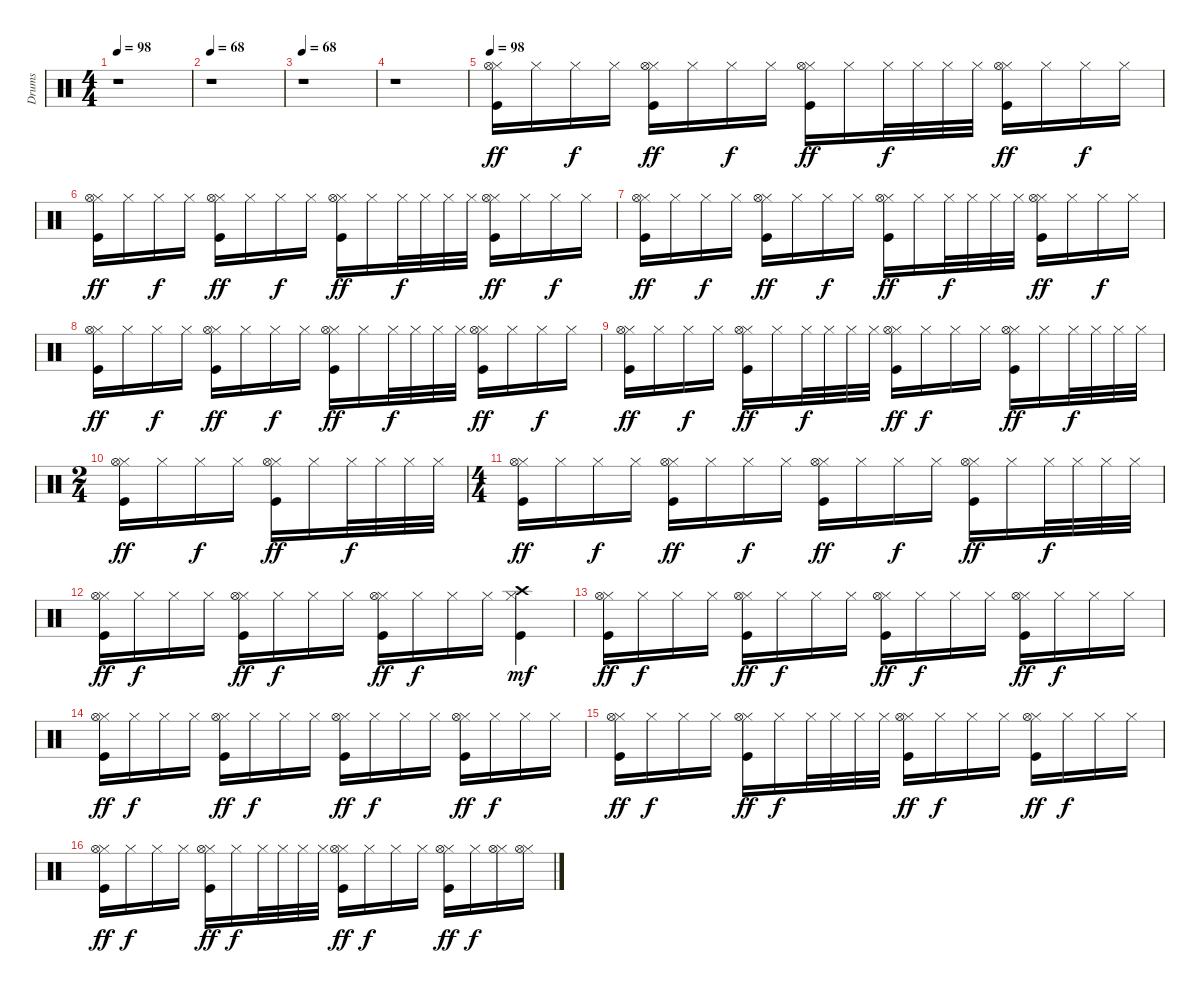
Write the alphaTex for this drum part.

\track ("Drums" "Drums") {instrument percussion}
\staff {score}
\articulation defaults
\ts (4 4)
\tempo 98
\tempo 68
\tempo 98
\clef neutral
\ks c
r.1{dy ff} |
\tempo 68
r.1 |
\tempo 68
r.1 |
r.1 |
\tempo 98
("Hi-Hat (closed)" "Kick (hit)" "Hi-Hat (open)").16 "Hi-Hat (closed)".16 "Hi-Hat (closed)".16{dy f} "Hi-Hat (closed)".16 ("Hi-Hat (closed)" "Kick (hit)" "Hi-Hat (open)").16{dy ff} "Hi-Hat (closed)".16 "Hi-Hat (closed)".16{dy f} "Hi-Hat (closed)".16 ("Hi-Hat (closed)" "Kick (hit)" "Hi-Hat (open)").16{dy ff} "Hi-Hat (closed)".16 "Hi-Hat (closed)".32{dy f} "Hi-Hat (closed)".32 "Hi-Hat (closed)".32 "Hi-Hat (closed)".32 ("Hi-Hat (closed)" "Kick (hit)" "Hi-Hat (open)").16{dy ff} "Hi-Hat (closed)".16 "Hi-Hat (closed)".16{dy f} "Hi-Hat (closed)".16 |
("Hi-Hat (closed)" "Kick (hit)" "Hi-Hat (open)").16{dy ff} "Hi-Hat (closed)".16 "Hi-Hat (closed)".16{dy f} "Hi-Hat (closed)".16 ("Hi-Hat (closed)" "Kick (hit)" "Hi-Hat (open)").16{dy ff} "Hi-Hat (closed)".16 "Hi-Hat (closed)".16{dy f} "Hi-Hat (closed)".16 ("Hi-Hat (closed)" "Kick (hit)" "Hi-Hat (open)").16{dy ff} "Hi-Hat (closed)".16 "Hi-Hat (closed)".32{dy f} "Hi-Hat (closed)".32 "Hi-Hat (closed)".32 "Hi-Hat (closed)".32 ("Hi-Hat (closed)" "Kick (hit)" "Hi-Hat (open)").16{dy ff} "Hi-Hat (closed)".16 "Hi-Hat (closed)".16{dy f} "Hi-Hat (closed)".16 |
("Hi-Hat (closed)" "Kick (hit)" "Hi-Hat (open)").16{dy ff} "Hi-Hat (closed)".16 "Hi-Hat (closed)".16{dy f} "Hi-Hat (closed)".16 ("Hi-Hat (closed)" "Kick (hit)" "Hi-Hat (open)").16{dy ff} "Hi-Hat (closed)".16 "Hi-Hat (closed)".16{dy f} "Hi-Hat (closed)".16 ("Hi-Hat (closed)" "Kick (hit)" "Hi-Hat (open)").16{dy ff} "Hi-Hat (closed)".16 "Hi-Hat (closed)".32{dy f} "Hi-Hat (closed)".32 "Hi-Hat (closed)".32 "Hi-Hat (closed)".32 ("Hi-Hat (closed)" "Kick (hit)" "Hi-Hat (open)").16{dy ff} "Hi-Hat (closed)".16 "Hi-Hat (closed)".16{dy f} "Hi-Hat (closed)".16 |
("Hi-Hat (closed)" "Kick (hit)" "Hi-Hat (open)").16{dy ff} "Hi-Hat (closed)".16 "Hi-Hat (closed)".16{dy f} "Hi-Hat (closed)".16 ("Hi-Hat (closed)" "Kick (hit)" "Hi-Hat (open)").16{dy ff} "Hi-Hat (closed)".16 "Hi-Hat (closed)".16{dy f} "Hi-Hat (closed)".16 ("Hi-Hat (closed)" "Kick (hit)" "Hi-Hat (open)").16{dy ff} "Hi-Hat (closed)".16 "Hi-Hat (closed)".32{dy f} "Hi-Hat (closed)".32 "Hi-Hat (closed)".32 "Hi-Hat (closed)".32 ("Hi-Hat (closed)" "Kick (hit)" "Hi-Hat (open)").16{dy ff} "Hi-Hat (closed)".16 "Hi-Hat (closed)".16{dy f} "Hi-Hat (closed)".16 |
("Hi-Hat (closed)" "Kick (hit)" "Hi-Hat (open)").16{dy ff} "Hi-Hat (closed)".16 "Hi-Hat (closed)".16{dy f} "Hi-Hat (closed)".16 ("Hi-Hat (closed)" "Kick (hit)" "Hi-Hat (open)").16{dy ff} "Hi-Hat (closed)".16 "Hi-Hat (closed)".32{dy f} "Hi-Hat (closed)".32 "Hi-Hat (closed)".32 "Hi-Hat (closed)".32 ("Hi-Hat (closed)" "Kick (hit)" "Hi-Hat (open)").16{dy ff} "Hi-Hat (closed)".16{dy f} "Hi-Hat (closed)".16 "Hi-Hat (closed)".16 ("Hi-Hat (closed)" "Kick (hit)" "Hi-Hat (open)").16{dy ff} "Hi-Hat (closed)".16 "Hi-Hat (closed)".32{dy f} "Hi-Hat (closed)".32 "Hi-Hat (closed)".32 "Hi-Hat (closed)".32 |
\ts (2 4)
("Hi-Hat (closed)" "Kick (hit)" "Hi-Hat (open)").16{dy ff} "Hi-Hat (closed)".16 "Hi-Hat (closed)".16{dy f} "Hi-Hat (closed)".16 ("Hi-Hat (closed)" "Kick (hit)" "Hi-Hat (open)").16{dy ff} "Hi-Hat (closed)".16 "Hi-Hat (closed)".32{dy f} "Hi-Hat (closed)".32 "Hi-Hat (closed)".32 "Hi-Hat (closed)".32 |
\ts (4 4)
("Hi-Hat (closed)" "Kick (hit)" "Hi-Hat (open)").16{dy ff} "Hi-Hat (closed)".16 "Hi-Hat (closed)".16{dy f} "Hi-Hat (closed)".16 ("Hi-Hat (closed)" "Kick (hit)" "Hi-Hat (open)").16{dy ff} "Hi-Hat (closed)".16 "Hi-Hat (closed)".16{dy f} "Hi-Hat (closed)".16 ("Hi-Hat (closed)" "Kick (hit)" "Hi-Hat (open)").16{dy ff} "Hi-Hat (closed)".16 "Hi-Hat (closed)".16{dy f} "Hi-Hat (closed)".16 ("Hi-Hat (closed)" "Kick (hit)" "Hi-Hat (open)").16{dy ff} "Hi-Hat (closed)".16 "Hi-Hat (closed)".32{dy f} "Hi-Hat (closed)".32 "Hi-Hat (closed)".32 "Hi-Hat (closed)".32 |
("Hi-Hat (closed)" "Kick (hit)" "Hi-Hat (open)").16{dy ff} "Hi-Hat (closed)".16{dy f} "Hi-Hat (closed)".16 "Hi-Hat (closed)".16 ("Hi-Hat (closed)" "Kick (hit)" "Hi-Hat (open)").16{dy ff} "Hi-Hat (closed)".16{dy f} "Hi-Hat (closed)".16 "Hi-Hat (closed)".16 ("Hi-Hat (closed)" "Kick (hit)" "Hi-Hat (open)").16{dy ff} "Hi-Hat (closed)".16{dy f} "Hi-Hat (closed)".16 "Hi-Hat (closed)".16 ("Kick (hit)" "Hi-Hat (closed)" "Crash high (hit)").4{dy mf} |
("Hi-Hat (closed)" "Kick (hit)" "Hi-Hat (open)").16{dy ff} "Hi-Hat (closed)".16{dy f} "Hi-Hat (closed)".16 "Hi-Hat (closed)".16 ("Hi-Hat (closed)" "Kick (hit)" "Hi-Hat (open)").16{dy ff} "Hi-Hat (closed)".16{dy f} "Hi-Hat (closed)".16 "Hi-Hat (closed)".16 ("Hi-Hat (closed)" "Kick (hit)" "Hi-Hat (open)").16{dy ff} "Hi-Hat (closed)".16{dy f} "Hi-Hat (closed)".16 "Hi-Hat (closed)".16 ("Hi-Hat (closed)" "Kick (hit)" "Hi-Hat (open)").16{dy ff} "Hi-Hat (closed)".16{dy f} "Hi-Hat (closed)".16 "Hi-Hat (closed)".16 |
("Hi-Hat (closed)" "Kick (hit)" "Hi-Hat (open)").16{dy ff} "Hi-Hat (closed)".16{dy f} "Hi-Hat (closed)".16 "Hi-Hat (closed)".16 ("Hi-Hat (closed)" "Kick (hit)" "Hi-Hat (open)").16{dy ff} "Hi-Hat (closed)".16{dy f} "Hi-Hat (closed)".16 "Hi-Hat (closed)".16 ("Hi-Hat (closed)" "Kick (hit)" "Hi-Hat (open)").16{dy ff} "Hi-Hat (closed)".16{dy f} "Hi-Hat (closed)".16 "Hi-Hat (closed)".16 ("Hi-Hat (closed)" "Kick (hit)" "Hi-Hat (open)").16{dy ff} "Hi-Hat (closed)".16{dy f} "Hi-Hat (closed)".16 "Hi-Hat (closed)".16 |
("Hi-Hat (closed)" "Kick (hit)" "Hi-Hat (open)").16{dy ff} "Hi-Hat (closed)".16{dy f} "Hi-Hat (closed)".16 "Hi-Hat (closed)".16 ("Hi-Hat (closed)" "Kick (hit)" "Hi-Hat (open)").16{dy ff} "Hi-Hat (closed)".16{dy f} "Hi-Hat (closed)".32 "Hi-Hat (closed)".32 "Hi-Hat (closed)".32 "Hi-Hat (closed)".32 ("Hi-Hat (closed)" "Kick (hit)" "Hi-Hat (open)").16{dy ff} "Hi-Hat (closed)".16{dy f} "Hi-Hat (closed)".16 "Hi-Hat (closed)".16 ("Hi-Hat (closed)" "Kick (hit)" "Hi-Hat (open)").16{dy ff} "Hi-Hat (closed)".16{dy f} "Hi-Hat (closed)".16 "Hi-Hat (closed)".16 |
("Hi-Hat (closed)" "Kick (hit)" "Hi-Hat (open)").16{dy ff} "Hi-Hat (closed)".16{dy f} "Hi-Hat (closed)".16 "Hi-Hat (closed)".16 ("Hi-Hat (closed)" "Kick (hit)" "Hi-Hat (open)").16{dy ff} "Hi-Hat (closed)".16{dy f} "Hi-Hat (closed)".32 "Hi-Hat (closed)".32 "Hi-Hat (closed)".32 "Hi-Hat (closed)".32 ("Hi-Hat (closed)" "Kick (hit)" "Hi-Hat (open)").16{dy ff} "Hi-Hat (closed)".16{dy f} "Hi-Hat (closed)".16 "Hi-Hat (closed)".16 ("Hi-Hat (closed)" "Kick (hit)" "Hi-Hat (open)").16{dy ff} "Hi-Hat (closed)".16{dy f} ("Hi-Hat (closed)" "Hi-Hat (open)").16 ("Hi-Hat (closed)" "Hi-Hat (open)").16
